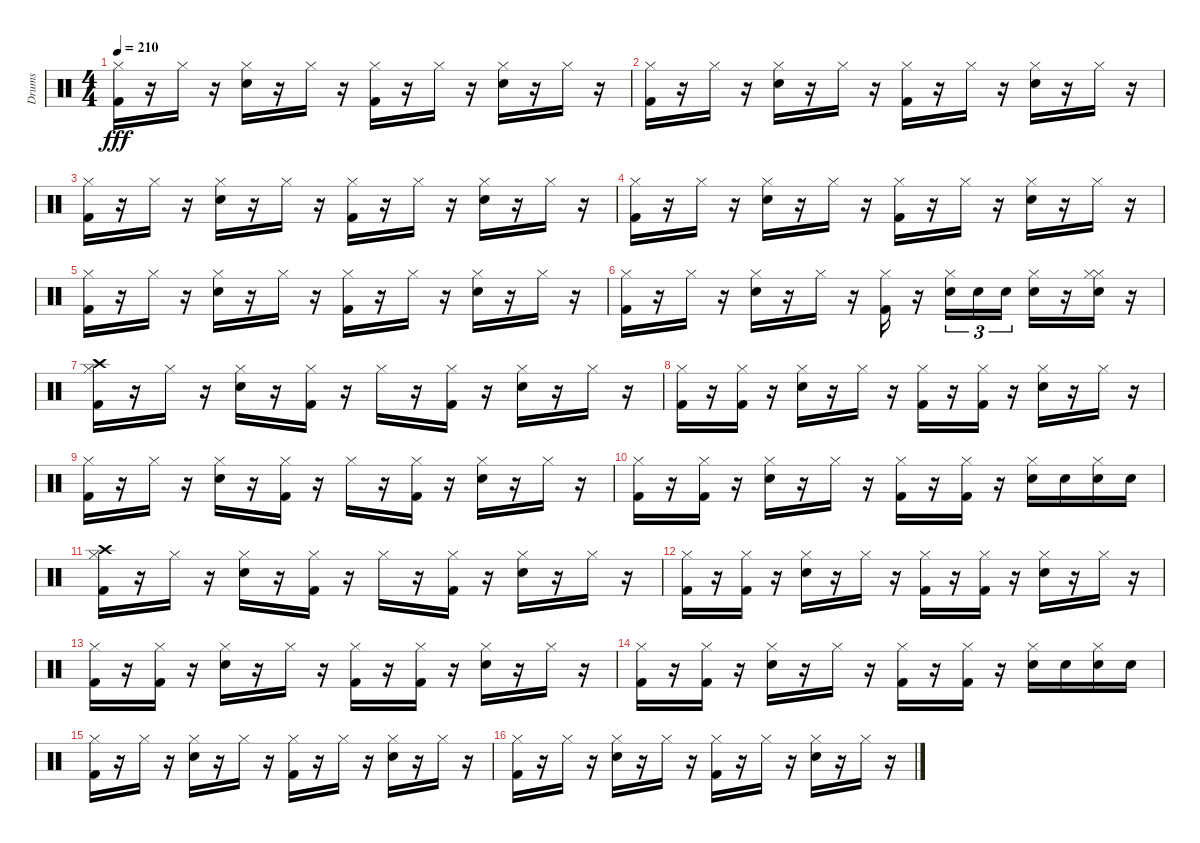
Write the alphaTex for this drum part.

\track ("Drums" "Drums") {instrument percussion}
\staff {score}
\articulation defaults
\ts (4 4)
\tempo 210
\clef neutral
\ks c
("Kick (hit) 2" "Hi-Hat (closed)").16{dy fff} r.16 "Hi-Hat (closed)".16 r.16 ("Snare (hit) 2" "Hi-Hat (closed)").16 r.16 "Hi-Hat (closed)".16 r.16 ("Hi-Hat (closed)" "Kick (hit) 2").16 r.16 "Hi-Hat (closed)".16 r.16 ("Hi-Hat (closed)" "Snare (hit) 2").16 r.16 "Hi-Hat (closed)".16 r.16 |
("Hi-Hat (closed)" "Kick (hit) 2").16 r.16 "Hi-Hat (closed)".16 r.16 ("Snare (hit) 2" "Hi-Hat (closed)").16 r.16 "Hi-Hat (closed)".16 r.16 ("Kick (hit) 2" "Hi-Hat (closed)").16 r.16 "Hi-Hat (closed)".16 r.16 ("Snare (hit) 2" "Hi-Hat (closed)").16 r.16 "Hi-Hat (closed)".16 r.16 |
("Kick (hit) 2" "Hi-Hat (closed)").16 r.16 "Hi-Hat (closed)".16 r.16 ("Snare (hit) 2" "Hi-Hat (closed)").16 r.16 "Hi-Hat (closed)".16 r.16 ("Hi-Hat (closed)" "Kick (hit) 2").16 r.16 "Hi-Hat (closed)".16 r.16 ("Snare (hit) 2" "Hi-Hat (closed)").16 r.16 "Hi-Hat (closed)".16 r.16 |
("Kick (hit) 2" "Hi-Hat (closed)").16 r.16 "Hi-Hat (closed)".16 r.16 ("Hi-Hat (closed)" "Snare (hit) 2").16 r.16 "Hi-Hat (closed)".16 r.16 ("Hi-Hat (closed)" "Kick (hit) 2").16 r.16 "Hi-Hat (closed)".16 r.16 ("Hi-Hat (closed)" "Snare (hit) 2").16 r.16 "Hi-Hat (closed)".16 r.16 |
("Kick (hit) 2" "Hi-Hat (closed)").16 r.16 "Hi-Hat (closed)".16 r.16 ("Snare (hit) 2" "Hi-Hat (closed)").16 r.16 "Hi-Hat (closed)".16 r.16 ("Hi-Hat (closed)" "Kick (hit) 2").16 r.16 "Hi-Hat (closed)".16 r.16 ("Hi-Hat (closed)" "Snare (hit) 2").16 r.16 "Hi-Hat (closed)".16 r.16 |
("Hi-Hat (closed)" "Kick (hit) 2").16 r.16 "Hi-Hat (closed)".16 r.16 ("Snare (hit) 2" "Hi-Hat (closed)").16 r.16 "Hi-Hat (closed)".16 r.16 ("Kick (hit) 2" "Hi-Hat (closed)").16 r.16 ("Snare (hit) 2" "Hi-Hat (closed)").16{tu (3 2)} "Snare (hit) 2".16{tu (3 2)} "Snare (hit) 2".16{tu (3 2)} ("Snare (hit) 2" "Hi-Hat (closed)").16 r.16 ("Hi-Hat (closed)" "Snare (hit) 2" "Hi-Hat (closed)").16 r.16 |
("Kick (hit) 2" "Hi-Hat (closed)" "Crash high (hit)").16 r.16 "Hi-Hat (closed)".16 r.16 ("Hi-Hat (closed)" "Snare (hit) 2").16 r.16 ("Hi-Hat (closed)" "Kick (hit) 2").16 r.16 "Hi-Hat (closed)".16 r.16 ("Hi-Hat (closed)" "Kick (hit) 2").16 r.16 ("Hi-Hat (closed)" "Snare (hit) 2").16 r.16 "Hi-Hat (closed)".16 r.16 |
("Kick (hit) 2" "Hi-Hat (closed)").16 r.16 ("Kick (hit) 2" "Hi-Hat (closed)").16 r.16 ("Hi-Hat (closed)" "Snare (hit) 2").16 r.16 "Hi-Hat (closed)".16 r.16 ("Kick (hit) 2" "Hi-Hat (closed)").16 r.16 ("Kick (hit) 2" "Hi-Hat (closed)").16 r.16 ("Hi-Hat (closed)" "Snare (hit) 2").16 r.16 "Hi-Hat (closed)".16 r.16 |
("Kick (hit) 2" "Hi-Hat (closed)").16 r.16 "Hi-Hat (closed)".16 r.16 ("Hi-Hat (closed)" "Snare (hit) 2").16 r.16 ("Hi-Hat (closed)" "Kick (hit) 2").16 r.16 "Hi-Hat (closed)".16 r.16 ("Hi-Hat (closed)" "Kick (hit) 2").16 r.16 ("Snare (hit) 2" "Hi-Hat (closed)").16 r.16 "Hi-Hat (closed)".16 r.16 |
("Hi-Hat (closed)" "Kick (hit) 2").16 r.16 ("Kick (hit) 2" "Hi-Hat (closed)").16 r.16 ("Hi-Hat (closed)" "Snare (hit) 2").16 r.16 "Hi-Hat (closed)".16 r.16 ("Kick (hit) 2" "Hi-Hat (closed)").16 r.16 ("Kick (hit) 2" "Hi-Hat (closed)").16 r.16 ("Snare (hit) 2" "Hi-Hat (closed)").16 "Snare (hit) 2".16 ("Hi-Hat (closed)" "Snare (hit) 2").16 "Snare (hit) 2".16 |
("Hi-Hat (closed)" "Kick (hit) 2" "Crash high (hit)").16 r.16 "Hi-Hat (closed)".16 r.16 ("Hi-Hat (closed)" "Snare (hit) 2").16 r.16 ("Hi-Hat (closed)" "Kick (hit) 2").16 r.16 "Hi-Hat (closed)".16 r.16 ("Hi-Hat (closed)" "Kick (hit) 2").16 r.16 ("Snare (hit) 2" "Hi-Hat (closed)").16 r.16 "Hi-Hat (closed)".16 r.16 |
("Hi-Hat (closed)" "Kick (hit) 2").16 r.16 ("Hi-Hat (closed)" "Kick (hit) 2").16 r.16 ("Hi-Hat (closed)" "Snare (hit) 2").16 r.16 "Hi-Hat (closed)".16 r.16 ("Hi-Hat (closed)" "Kick (hit) 2").16 r.16 ("Hi-Hat (closed)" "Kick (hit) 2").16 r.16 ("Hi-Hat (closed)" "Snare (hit) 2").16 r.16 "Hi-Hat (closed)".16 r.16 |
("Hi-Hat (closed)" "Kick (hit) 2").16 r.16 ("Kick (hit) 2" "Hi-Hat (closed)").16 r.16 ("Snare (hit) 2" "Hi-Hat (closed)").16 r.16 "Hi-Hat (closed)".16 r.16 ("Hi-Hat (closed)" "Kick (hit) 2").16 r.16 ("Hi-Hat (closed)" "Kick (hit) 2").16 r.16 ("Hi-Hat (closed)" "Snare (hit) 2").16 r.16 "Hi-Hat (closed)".16 r.16 |
("Hi-Hat (closed)" "Kick (hit) 2").16 r.16 ("Kick (hit) 2" "Hi-Hat (closed)").16 r.16 ("Snare (hit) 2" "Hi-Hat (closed)").16 r.16 "Hi-Hat (closed)".16 r.16 ("Kick (hit) 2" "Hi-Hat (closed)").16 r.16 ("Kick (hit) 2" "Hi-Hat (closed)").16 r.16 ("Hi-Hat (closed)" "Snare (hit) 2").16 "Snare (hit) 2".16 ("Snare (hit) 2" "Hi-Hat (closed)").16 "Snare (hit) 2".16 |
("Kick (hit) 2" "Hi-Hat (closed)").16 r.16 "Hi-Hat (closed)".16 r.16 ("Hi-Hat (closed)" "Snare (hit) 2").16 r.16 "Hi-Hat (closed)".16 r.16 ("Hi-Hat (closed)" "Kick (hit) 2").16 r.16 "Hi-Hat (closed)".16 r.16 ("Hi-Hat (closed)" "Snare (hit) 2").16 r.16 "Hi-Hat (closed)".16 r.16 |
("Kick (hit) 2" "Hi-Hat (closed)").16 r.16 "Hi-Hat (closed)".16 r.16 ("Hi-Hat (closed)" "Snare (hit) 2").16 r.16 "Hi-Hat (closed)".16 r.16 ("Kick (hit) 2" "Hi-Hat (closed)").16 r.16 "Hi-Hat (closed)".16 r.16 ("Snare (hit) 2" "Hi-Hat (closed)").16 r.16 "Hi-Hat (closed)".16 r.16
